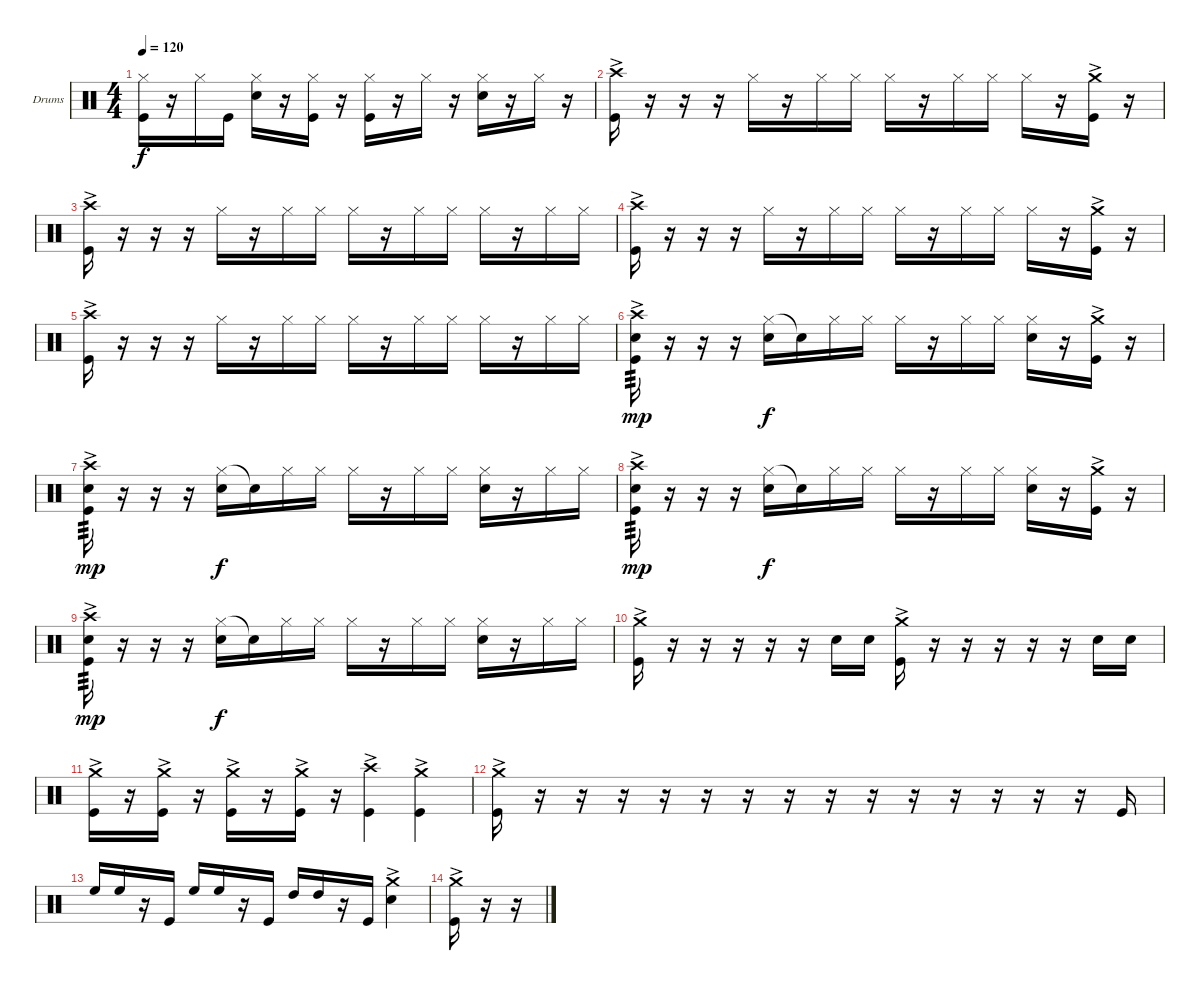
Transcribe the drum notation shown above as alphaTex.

\bracketExtendMode groupsimilarinstruments
\firstSystemTrackNameOrientation horizontal
\otherSystemsTrackNameOrientation horizontal
\track ("Drumkit" "Drums") {instrument percussion}
\staff {score}
\articulation defaults
\ts (4 4)
\tempo 120
\clef neutral
\ks c
("Hi-Hat (closed)" "Kick (hit)").16{dy f} r.16 "Hi-Hat (closed)".16 "Kick (hit)".16 ("Hi-Hat (closed)" "Snare (hit) 2").16 r.16 ("Hi-Hat (closed)" "Kick (hit)").16 r.16 ("Hi-Hat (closed)" "Kick (hit)").16 r.16 "Hi-Hat (closed)".16 r.16 ("Hi-Hat (closed)" "Snare (hit) 2").16 r.16 "Hi-Hat (closed)".16 r.16 |
("Crash high (hit)"{ac} "Kick (hit)").16 r.16 r.16 r.16 "Hi-Hat (closed)".16 r.16 "Hi-Hat (closed)".16 "Hi-Hat (closed)".16 "Hi-Hat (closed)".16 r.16 "Hi-Hat (closed)".16 "Hi-Hat (closed)".16 "Hi-Hat (closed)".16 r.16 ("Crash medium (hit)"{ac} "Kick (hit)").16 r.16 |
("Crash high (hit)"{ac} "Kick (hit)").16 r.16 r.16 r.16 "Hi-Hat (closed)".16 r.16 "Hi-Hat (closed)".16 "Hi-Hat (closed)".16 "Hi-Hat (closed)".16 r.16 "Hi-Hat (closed)".16 "Hi-Hat (closed)".16 "Hi-Hat (closed)".16 r.16 "Hi-Hat (closed)".16 "Hi-Hat (closed)".16 |
("Crash high (hit)"{ac} "Kick (hit)").16 r.16 r.16 r.16 "Hi-Hat (closed)".16 r.16 "Hi-Hat (closed)".16 "Hi-Hat (closed)".16 "Hi-Hat (closed)".16 r.16 "Hi-Hat (closed)".16 "Hi-Hat (closed)".16 "Hi-Hat (closed)".16 r.16 ("Crash medium (hit)"{ac} "Kick (hit)").16 r.16 |
("Crash high (hit)"{ac} "Kick (hit)").16 r.16 r.16 r.16 "Hi-Hat (closed)".16 r.16 "Hi-Hat (closed)".16 "Hi-Hat (closed)".16 "Hi-Hat (closed)".16 r.16 "Hi-Hat (closed)".16 "Hi-Hat (closed)".16 "Hi-Hat (closed)".16 r.16 "Hi-Hat (closed)".16 "Hi-Hat (closed)".16 |
("Crash high (hit)"{ac} "Snare (hit) 2" "Kick (hit)").16{tp 3 dy mp} r.16 r.16 r.16 ("Hi-Hat (closed)" "Snare (hit) 2").16{dy f} "Snare (hit) 2"{t}.16 "Hi-Hat (closed)".16 "Hi-Hat (closed)".16 "Hi-Hat (closed)".16 r.16 "Hi-Hat (closed)".16 "Hi-Hat (closed)".16 ("Hi-Hat (closed)" "Snare (hit) 2").16 r.16 ("Crash medium (hit)"{ac} "Kick (hit)").16 r.16 |
("Crash high (hit)"{ac} "Snare (hit) 2" "Kick (hit)").16{tp 3 dy mp} r.16 r.16 r.16 ("Hi-Hat (closed)" "Snare (hit) 2").16{dy f} "Snare (hit) 2"{t}.16 "Hi-Hat (closed)".16 "Hi-Hat (closed)".16 "Hi-Hat (closed)".16 r.16 "Hi-Hat (closed)".16 "Hi-Hat (closed)".16 ("Hi-Hat (closed)" "Snare (hit) 2").16 r.16 "Hi-Hat (closed)".16 "Hi-Hat (closed)".16 |
("Crash high (hit)"{ac} "Snare (hit) 2" "Kick (hit)").16{tp 3 dy mp} r.16 r.16 r.16 ("Hi-Hat (closed)" "Snare (hit) 2").16{dy f} "Snare (hit) 2"{t}.16 "Hi-Hat (closed)".16 "Hi-Hat (closed)".16 "Hi-Hat (closed)".16 r.16 "Hi-Hat (closed)".16 "Hi-Hat (closed)".16 ("Hi-Hat (closed)" "Snare (hit) 2").16 r.16 ("Crash medium (hit)"{ac} "Kick (hit)").16 r.16 |
("Crash high (hit)"{ac} "Snare (hit) 2" "Kick (hit)").16{tp 3 dy mp} r.16 r.16 r.16 ("Hi-Hat (closed)" "Snare (hit) 2").16{dy f} "Snare (hit) 2"{t}.16 "Hi-Hat (closed)".16 "Hi-Hat (closed)".16 "Hi-Hat (closed)".16 r.16 "Hi-Hat (closed)".16 "Hi-Hat (closed)".16 ("Hi-Hat (closed)" "Snare (hit) 2").16 r.16 "Hi-Hat (closed)".16 "Hi-Hat (closed)".16 |
("Crash medium (hit)"{ac} "Kick (hit)").16 r.16 r.16 r.16 r.16 r.16 "Snare (hit) 2".16 "Snare (hit) 2".16 ("Crash medium (hit)"{ac} "Kick (hit)").16 r.16 r.16 r.16 r.16 r.16 "Snare (hit) 2".16 "Snare (hit) 2".16 |
("Crash medium (hit)"{ac} "Kick (hit)").16 r.16 ("Crash medium (hit)"{ac} "Kick (hit)").16 r.16 ("Crash medium (hit)"{ac} "Kick (hit)").16 r.16 ("Crash medium (hit)"{ac} "Kick (hit)").16 r.16 ("Crash high (hit)"{ac} "Kick (hit)").4 ("Crash medium (hit)"{ac} "Kick (hit)").4 |
("Crash medium (hit)"{ac} "Kick (hit)").16 r.16 r.16 r.16 r.16 r.16 r.16 r.16 r.16 r.16 r.16 r.16 r.16 r.16 r.16 "Kick (hit)".16 |
"High Floor Tom (hit)".16 "High Floor Tom (hit)".16 r.16 "Kick (hit)".16 "High Floor Tom (hit)".16 "High Floor Tom (hit)".16 r.16 "Kick (hit)".16 "High Tom (hit)".16 "High Tom (hit)".16 r.16 "Kick (hit)".16 ("Crash medium (hit)"{ac} "Snare (hit) 2").4 |
("Crash medium (hit)"{ac} "Kick (hit)").16 r.16 r.16
